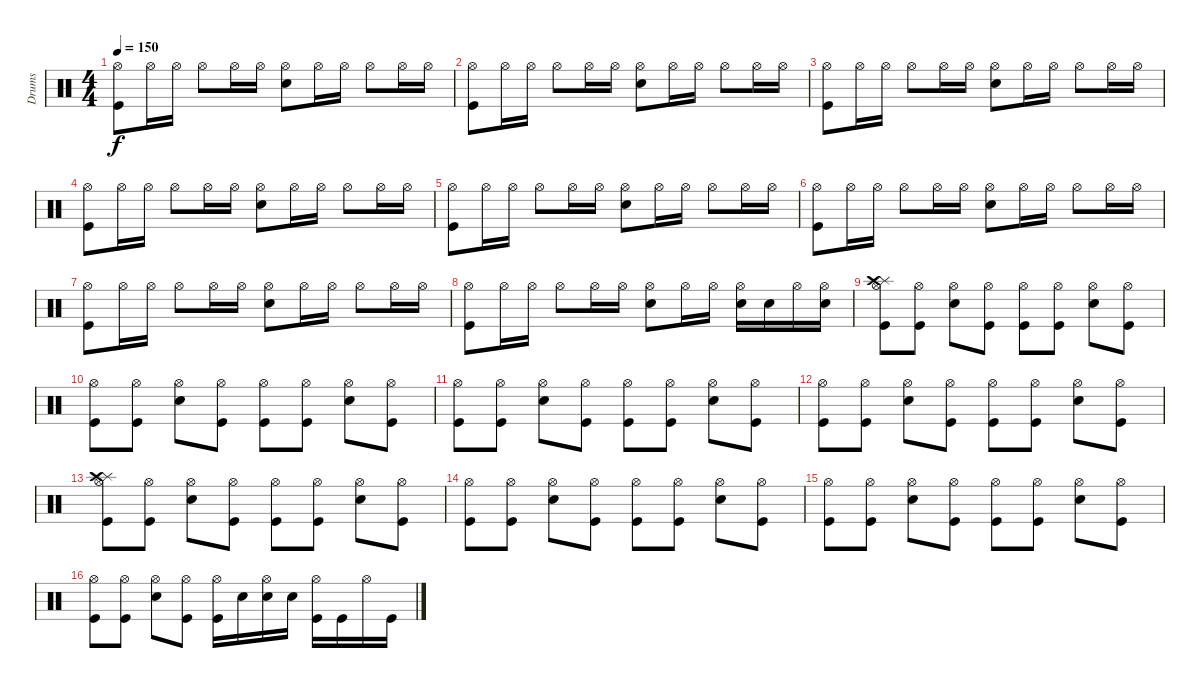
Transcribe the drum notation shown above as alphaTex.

\track ("Drums" "Drums") {instrument percussion}
\staff {score}
\articulation defaults
\ts (4 4)
\tempo 150
\clef neutral
\ks c
("Hi-Hat (open)" "Kick (hit)").8{dy f} "Hi-Hat (open)".16 "Hi-Hat (open)".16 "Hi-Hat (open)".8 "Hi-Hat (open)".16 "Hi-Hat (open)".16 ("Hi-Hat (open)" "Electric Snare (hit)").8 "Hi-Hat (open)".16 "Hi-Hat (open)".16 "Hi-Hat (open)".8 "Hi-Hat (open)".16 "Hi-Hat (open)".16 |
("Hi-Hat (open)" "Kick (hit)").8 "Hi-Hat (open)".16 "Hi-Hat (open)".16 "Hi-Hat (open)".8 "Hi-Hat (open)".16 "Hi-Hat (open)".16 ("Hi-Hat (open)" "Electric Snare (hit)").8 "Hi-Hat (open)".16 "Hi-Hat (open)".16 "Hi-Hat (open)".8 "Hi-Hat (open)".16 "Hi-Hat (open)".16 |
("Hi-Hat (open)" "Kick (hit)").8 "Hi-Hat (open)".16 "Hi-Hat (open)".16 "Hi-Hat (open)".8 "Hi-Hat (open)".16 "Hi-Hat (open)".16 ("Hi-Hat (open)" "Electric Snare (hit)").8 "Hi-Hat (open)".16 "Hi-Hat (open)".16 "Hi-Hat (open)".8 "Hi-Hat (open)".16 "Hi-Hat (open)".16 |
("Hi-Hat (open)" "Kick (hit)").8 "Hi-Hat (open)".16 "Hi-Hat (open)".16 "Hi-Hat (open)".8 "Hi-Hat (open)".16 "Hi-Hat (open)".16 ("Hi-Hat (open)" "Electric Snare (hit)").8 "Hi-Hat (open)".16 "Hi-Hat (open)".16 "Hi-Hat (open)".8 "Hi-Hat (open)".16 "Hi-Hat (open)".16 |
("Hi-Hat (open)" "Kick (hit)").8 "Hi-Hat (open)".16 "Hi-Hat (open)".16 "Hi-Hat (open)".8 "Hi-Hat (open)".16 "Hi-Hat (open)".16 ("Hi-Hat (open)" "Electric Snare (hit)").8 "Hi-Hat (open)".16 "Hi-Hat (open)".16 "Hi-Hat (open)".8 "Hi-Hat (open)".16 "Hi-Hat (open)".16 |
("Hi-Hat (open)" "Kick (hit)").8 "Hi-Hat (open)".16 "Hi-Hat (open)".16 "Hi-Hat (open)".8 "Hi-Hat (open)".16 "Hi-Hat (open)".16 ("Hi-Hat (open)" "Electric Snare (hit)").8 "Hi-Hat (open)".16 "Hi-Hat (open)".16 "Hi-Hat (open)".8 "Hi-Hat (open)".16 "Hi-Hat (open)".16 |
("Hi-Hat (open)" "Kick (hit)").8 "Hi-Hat (open)".16 "Hi-Hat (open)".16 "Hi-Hat (open)".8 "Hi-Hat (open)".16 "Hi-Hat (open)".16 ("Hi-Hat (open)" "Electric Snare (hit)").8 "Hi-Hat (open)".16 "Hi-Hat (open)".16 "Hi-Hat (open)".8 "Hi-Hat (open)".16 "Hi-Hat (open)".16 |
("Hi-Hat (open)" "Kick (hit)").8 "Hi-Hat (open)".16 "Hi-Hat (open)".16 "Hi-Hat (open)".8 "Hi-Hat (open)".16 "Hi-Hat (open)".16 ("Hi-Hat (open)" "Electric Snare (hit)").8 "Hi-Hat (open)".16 "Hi-Hat (open)".16 ("Hi-Hat (open)" "Electric Snare (hit)").16 "Electric Snare (hit)".16 "Hi-Hat (open)".16 ("Hi-Hat (open)" "Electric Snare (hit)").16 |
("Splash (hit)" "Crash high (hit)" "Hi-Hat (open)" "Kick (hit)").8 ("Hi-Hat (open)" "Kick (hit)").8 ("Hi-Hat (open)" "Electric Snare (hit)").8 ("Hi-Hat (open)" "Kick (hit)").8 ("Hi-Hat (open)" "Kick (hit)").8 ("Hi-Hat (open)" "Kick (hit)").8 ("Hi-Hat (open)" "Electric Snare (hit)").8 ("Hi-Hat (open)" "Kick (hit)").8 |
("Hi-Hat (open)" "Kick (hit)").8 ("Hi-Hat (open)" "Kick (hit)").8 ("Hi-Hat (open)" "Electric Snare (hit)").8 ("Hi-Hat (open)" "Kick (hit)").8 ("Hi-Hat (open)" "Kick (hit)").8 ("Hi-Hat (open)" "Kick (hit)").8 ("Hi-Hat (open)" "Electric Snare (hit)").8 ("Hi-Hat (open)" "Kick (hit)").8 |
("Hi-Hat (open)" "Kick (hit)").8 ("Hi-Hat (open)" "Kick (hit)").8 ("Hi-Hat (open)" "Electric Snare (hit)").8 ("Hi-Hat (open)" "Kick (hit)").8 ("Hi-Hat (open)" "Kick (hit)").8 ("Hi-Hat (open)" "Kick (hit)").8 ("Hi-Hat (open)" "Electric Snare (hit)").8 ("Hi-Hat (open)" "Kick (hit)").8 |
("Hi-Hat (open)" "Kick (hit)").8 ("Hi-Hat (open)" "Kick (hit)").8 ("Hi-Hat (open)" "Electric Snare (hit)").8 ("Hi-Hat (open)" "Kick (hit)").8 ("Hi-Hat (open)" "Kick (hit)").8 ("Hi-Hat (open)" "Kick (hit)").8 ("Hi-Hat (open)" "Electric Snare (hit)").8 ("Hi-Hat (open)" "Kick (hit)").8 |
("Splash (hit)" "Crash high (hit)" "Hi-Hat (open)" "Kick (hit)").8 ("Hi-Hat (open)" "Kick (hit)").8 ("Hi-Hat (open)" "Electric Snare (hit)").8 ("Hi-Hat (open)" "Kick (hit)").8 ("Hi-Hat (open)" "Kick (hit)").8 ("Hi-Hat (open)" "Kick (hit)").8 ("Hi-Hat (open)" "Electric Snare (hit)").8 ("Hi-Hat (open)" "Kick (hit)").8 |
("Hi-Hat (open)" "Kick (hit)").8 ("Hi-Hat (open)" "Kick (hit)").8 ("Hi-Hat (open)" "Electric Snare (hit)").8 ("Hi-Hat (open)" "Kick (hit)").8 ("Hi-Hat (open)" "Kick (hit)").8 ("Hi-Hat (open)" "Kick (hit)").8 ("Hi-Hat (open)" "Electric Snare (hit)").8 ("Hi-Hat (open)" "Kick (hit)").8 |
("Hi-Hat (open)" "Kick (hit)").8 ("Hi-Hat (open)" "Kick (hit)").8 ("Hi-Hat (open)" "Electric Snare (hit)").8 ("Hi-Hat (open)" "Kick (hit)").8 ("Hi-Hat (open)" "Kick (hit)").8 ("Hi-Hat (open)" "Kick (hit)").8 ("Hi-Hat (open)" "Electric Snare (hit)").8 ("Hi-Hat (open)" "Kick (hit)").8 |
("Hi-Hat (open)" "Kick (hit)").8 ("Hi-Hat (open)" "Kick (hit)").8 ("Hi-Hat (open)" "Electric Snare (hit)").8 ("Hi-Hat (open)" "Kick (hit)").8 ("Hi-Hat (open)" "Kick (hit)").16 "Electric Snare (hit)".16 ("Hi-Hat (open)" "Snare (hit) 2").16 "Snare (hit) 2".16 ("Hi-Hat (open)" "Kick (hit)").16 "Kick (hit)".16 "Hi-Hat (open)".16 "Kick (hit)".16
